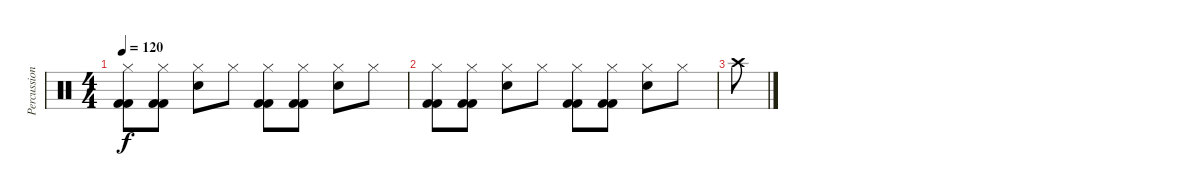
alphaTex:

\track ("Percussions" "Percussion") {instrument percussion}
\staff {score}
\articulation defaults
\ts (4 4)
\tempo 120
\clef neutral
\ks c
("Hi-Hat (closed)" "Kick (hit) 2" "Kick (hit) 2").8{dy f} ("Hi-Hat (closed)" "Kick (hit) 2" "Kick (hit) 2").8 ("Hi-Hat (closed)" "Snare (hit) 2").8 "Hi-Hat (closed)".8 ("Hi-Hat (closed)" "Kick (hit) 2" "Kick (hit) 2").8 ("Hi-Hat (closed)" "Kick (hit) 2" "Kick (hit) 2").8 ("Hi-Hat (closed)" "Snare (hit) 2").8 "Hi-Hat (closed)".8 |
("Hi-Hat (closed)" "Kick (hit) 2" "Kick (hit) 2").8 ("Hi-Hat (closed)" "Kick (hit) 2" "Kick (hit) 2").8 ("Hi-Hat (closed)" "Snare (hit) 2").8 "Hi-Hat (closed)".8 ("Hi-Hat (closed)" "Kick (hit) 2" "Kick (hit) 2").8 ("Hi-Hat (closed)" "Kick (hit) 2" "Kick (hit) 2").8 ("Hi-Hat (closed)" "Snare (hit) 2").8 "Hi-Hat (closed)".8 |
"Crash high (hit)".8
